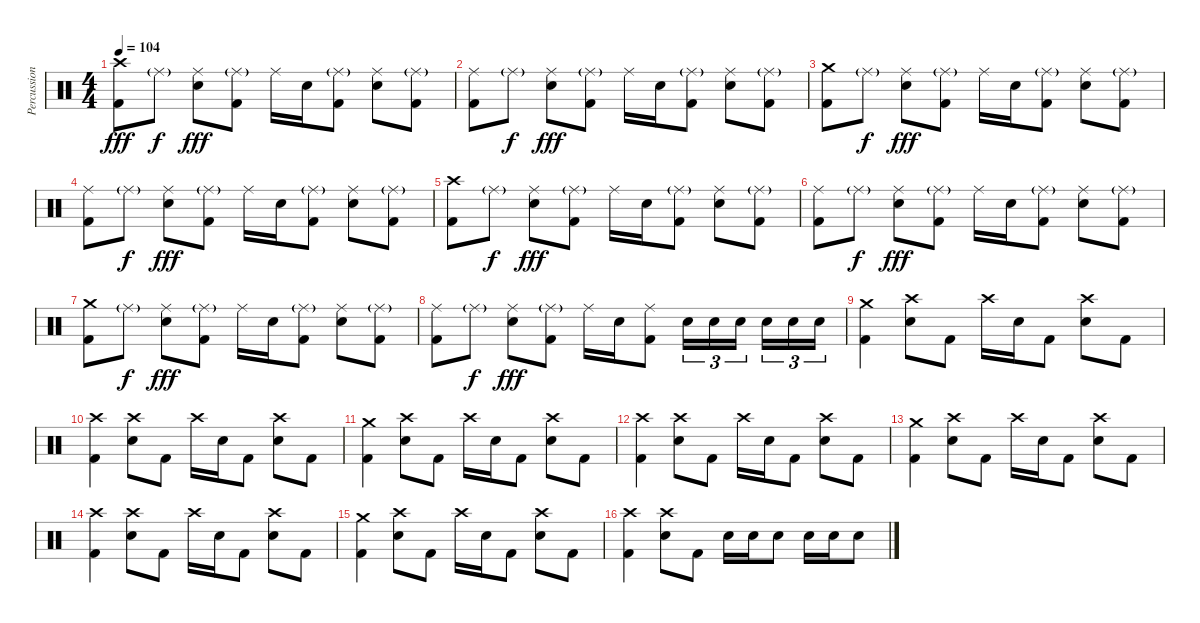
\track ("Percussion" "Percussion") {instrument percussion}
\staff {score}
\articulation defaults
\ts (4 4)
\tempo 104
\clef neutral
\ks c
("Crash high (hit)" "Kick (hit) 2").8{dy fff} "Ride (middle)"{g}.8{dy f} ("Ride (middle)" "Electric Snare (hit)").8{dy fff} ("Ride (middle)"{g} "Kick (hit) 2").8 "Ride (middle)".16 "Electric Snare (hit)".16 ("Ride (middle)"{g} "Kick (hit) 2").8 ("Ride (middle)" "Electric Snare (hit)").8 ("Ride (middle)"{g} "Kick (hit) 2").8 |
("Ride (middle)" "Kick (hit) 2").8 "Ride (middle)"{g}.8{dy f} ("Ride (middle)" "Electric Snare (hit)").8{dy fff} ("Ride (middle)"{g} "Kick (hit) 2").8 "Ride (middle)".16 "Electric Snare (hit)".16 ("Ride (middle)"{g} "Kick (hit) 2").8 ("Ride (middle)" "Electric Snare (hit)").8 ("Ride (middle)"{g} "Kick (hit) 2").8 |
("Crash medium (hit)" "Kick (hit) 2").8 "Ride (middle)"{g}.8{dy f} ("Ride (middle)" "Electric Snare (hit)").8{dy fff} ("Ride (middle)"{g} "Kick (hit) 2").8 "Ride (middle)".16 "Electric Snare (hit)".16 ("Ride (middle)"{g} "Kick (hit) 2").8 ("Ride (middle)" "Electric Snare (hit)").8 ("Ride (middle)"{g} "Kick (hit) 2").8 |
("Ride (middle)" "Kick (hit) 2").8 "Ride (middle)"{g}.8{dy f} ("Ride (middle)" "Electric Snare (hit)").8{dy fff} ("Ride (middle)"{g} "Kick (hit) 2").8 "Ride (middle)".16 "Electric Snare (hit)".16 ("Ride (middle)"{g} "Kick (hit) 2").8 ("Ride (middle)" "Electric Snare (hit)").8 ("Ride (middle)"{g} "Kick (hit) 2").8 |
("Crash high (hit)" "Kick (hit) 2").8 "Ride (middle)"{g}.8{dy f} ("Ride (middle)" "Electric Snare (hit)").8{dy fff} ("Ride (middle)"{g} "Kick (hit) 2").8 "Ride (middle)".16 "Electric Snare (hit)".16 ("Ride (middle)"{g} "Kick (hit) 2").8 ("Ride (middle)" "Electric Snare (hit)").8 ("Ride (middle)"{g} "Kick (hit) 2").8 |
("Ride (middle)" "Kick (hit) 2").8 "Ride (middle)"{g}.8{dy f} ("Ride (middle)" "Electric Snare (hit)").8{dy fff} ("Ride (middle)"{g} "Kick (hit) 2").8 "Ride (middle)".16 "Electric Snare (hit)".16 ("Ride (middle)"{g} "Kick (hit) 2").8 ("Ride (middle)" "Electric Snare (hit)").8 ("Ride (middle)"{g} "Kick (hit) 2").8 |
("Crash medium (hit)" "Kick (hit) 2").8 "Ride (middle)"{g}.8{dy f} ("Ride (middle)" "Electric Snare (hit)").8{dy fff} ("Ride (middle)"{g} "Kick (hit) 2").8 "Ride (middle)".16 "Electric Snare (hit)".16 ("Ride (middle)"{g} "Kick (hit) 2").8 ("Ride (middle)" "Electric Snare (hit)").8 ("Ride (middle)"{g} "Kick (hit) 2").8 |
("Ride (middle)" "Kick (hit) 2").8 "Ride (middle)"{g}.8{dy f} ("Ride (middle)" "Electric Snare (hit)").8{dy fff} ("Ride (middle)"{g} "Kick (hit) 2").8 "Ride (middle)".16 "Electric Snare (hit)".16 ("Ride (middle)" "Kick (hit) 2").8 "Electric Snare (hit)".16{tu (3 2)} "Electric Snare (hit)".16{tu (3 2)} "Electric Snare (hit)".16{tu (3 2) beam splitsecondary} "Electric Snare (hit)".16{tu (3 2)} "Electric Snare (hit)".16{tu (3 2)} "Electric Snare (hit)".16{tu (3 2)} |
("Crash medium (hit)" "Kick (hit) 2").4 ("Crash high (hit)" "Electric Snare (hit)").8 "Kick (hit) 2".8 "Crash high (hit)".16 "Electric Snare (hit)".16 "Kick (hit) 2".8 ("Crash high (hit)" "Electric Snare (hit)").8 "Kick (hit) 2".8 |
("Crash high (hit)" "Kick (hit) 2").4 ("Crash high (hit)" "Electric Snare (hit)").8 "Kick (hit) 2".8 "Crash high (hit)".16 "Electric Snare (hit)".16 "Kick (hit) 2".8 ("Crash high (hit)" "Electric Snare (hit)").8 "Kick (hit) 2".8 |
("Crash medium (hit)" "Kick (hit) 2").4 ("Crash high (hit)" "Electric Snare (hit)").8 "Kick (hit) 2".8 "Crash high (hit)".16 "Electric Snare (hit)".16 "Kick (hit) 2".8 ("Crash high (hit)" "Electric Snare (hit)").8 "Kick (hit) 2".8 |
("Crash high (hit)" "Kick (hit) 2").4 ("Crash high (hit)" "Electric Snare (hit)").8 "Kick (hit) 2".8 "Crash high (hit)".16 "Electric Snare (hit)".16 "Kick (hit) 2".8 ("Crash high (hit)" "Electric Snare (hit)").8 "Kick (hit) 2".8 |
("Crash medium (hit)" "Kick (hit) 2").4 ("Crash high (hit)" "Electric Snare (hit)").8 "Kick (hit) 2".8 "Crash high (hit)".16 "Electric Snare (hit)".16 "Kick (hit) 2".8 ("Crash high (hit)" "Electric Snare (hit)").8 "Kick (hit) 2".8 |
("Crash high (hit)" "Kick (hit) 2").4 ("Crash high (hit)" "Electric Snare (hit)").8 "Kick (hit) 2".8 "Crash high (hit)".16 "Electric Snare (hit)".16 "Kick (hit) 2".8 ("Crash high (hit)" "Electric Snare (hit)").8 "Kick (hit) 2".8 |
("Crash medium (hit)" "Kick (hit) 2").4 ("Crash high (hit)" "Electric Snare (hit)").8 "Kick (hit) 2".8 "Crash high (hit)".16 "Electric Snare (hit)".16 "Kick (hit) 2".8 ("Crash high (hit)" "Electric Snare (hit)").8 "Kick (hit) 2".8 |
("Crash high (hit)" "Kick (hit) 2").4 ("Crash high (hit)" "Electric Snare (hit)").8 "Kick (hit) 2".8 "Electric Snare (hit)".16 "Electric Snare (hit)".16 "Electric Snare (hit)".8 "Electric Snare (hit)".16 "Electric Snare (hit)".16 "Electric Snare (hit)".8
